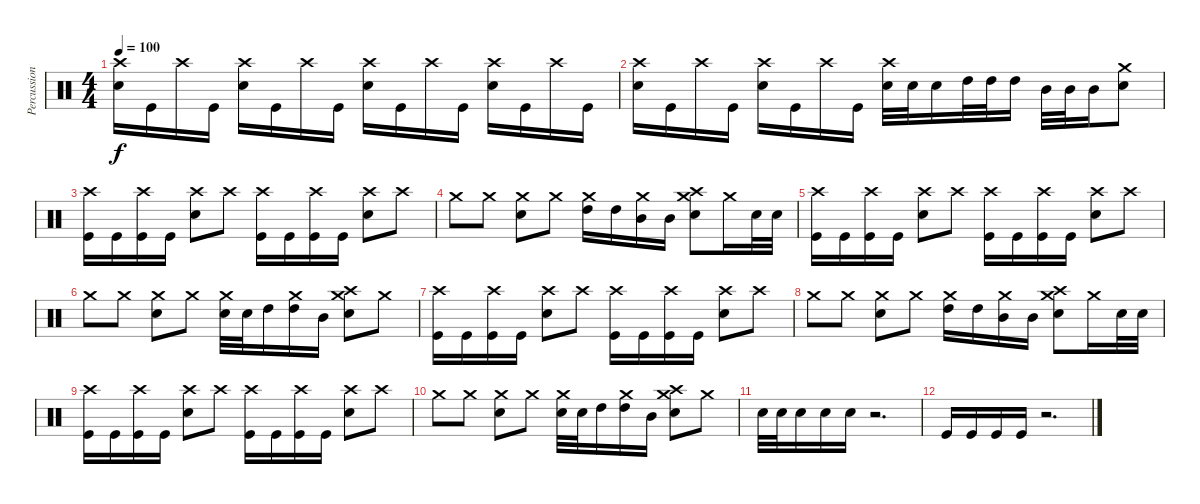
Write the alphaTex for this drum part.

\track ("Percussion" "Percussion") {instrument percussion}
\staff {score}
\articulation defaults
\ts (4 4)
\tempo 100
\clef neutral
\ks c
("Crash high (hit)" "Electric Snare (hit)").16{dy f} "Kick (hit)".16 "Crash high (hit)".16 "Kick (hit)".16 ("Crash high (hit)" "Electric Snare (hit)").16 "Kick (hit)".16 "Crash high (hit)".16 "Kick (hit)".16 ("Crash high (hit)" "Electric Snare (hit)").16 "Kick (hit)".16 "Crash high (hit)".16 "Kick (hit)".16 ("Crash high (hit)" "Electric Snare (hit)").16 "Kick (hit)".16 "Crash high (hit)".16 "Kick (hit)".16 |
("Crash high (hit)" "Electric Snare (hit)").16 "Kick (hit)".16 "Crash high (hit)".16 "Kick (hit)".16 ("Crash high (hit)" "Electric Snare (hit)").16 "Kick (hit)".16 "Crash high (hit)".16 "Kick (hit)".16 ("Crash high (hit)" "Electric Snare (hit)").32 "Electric Snare (hit)".32 "Electric Snare (hit)".16 "High Tom (hit)".32 "High Tom (hit)".32 "High Tom (hit)".16 "Mid Tom (hit)".32 "Mid Tom (hit)".32 "Mid Tom (hit)".16 ("Electric Snare (hit)" "Crash medium (hit)").8 |
("Crash high (hit)" "Kick (hit)").16 "Kick (hit)".16 ("Crash high (hit)" "Kick (hit)").16 "Kick (hit)".16 ("Crash high (hit)" "Electric Snare (hit)").8 "Crash high (hit)".8 ("Crash high (hit)" "Kick (hit)").16 "Kick (hit)".16 ("Crash high (hit)" "Kick (hit)").16 "Kick (hit)".16 ("Crash high (hit)" "Electric Snare (hit)").8 "Crash high (hit)".8 |
"Crash medium (hit)".8 "Crash medium (hit)".8 ("Crash medium (hit)" "Electric Snare (hit)").8 "Crash medium (hit)".8 ("Crash medium (hit)" "High Tom (hit)").16 "High Tom (hit)".16 ("Crash medium (hit)" "Mid Tom (hit)").16 "Mid Tom (hit)".16 ("Crash high (hit)" "Crash medium (hit)" "Electric Snare (hit)").8 "Crash medium (hit)".16 "Electric Snare (hit)".32 "Electric Snare (hit)".32 |
("Crash high (hit)" "Kick (hit)").16 "Kick (hit)".16 ("Crash high (hit)" "Kick (hit)").16 "Kick (hit)".16 ("Crash high (hit)" "Electric Snare (hit)").8 "Crash high (hit)".8 ("Crash high (hit)" "Kick (hit)").16 "Kick (hit)".16 ("Crash high (hit)" "Kick (hit)").16 "Kick (hit)".16 ("Crash high (hit)" "Electric Snare (hit)").8 "Crash high (hit)".8 |
"Crash medium (hit)".8 "Crash medium (hit)".8 ("Crash medium (hit)" "Electric Snare (hit)").8 "Crash medium (hit)".8 ("Crash medium (hit)" "Electric Snare (hit)").32 "Electric Snare (hit)".32 "High Tom (hit)".16 ("Crash medium (hit)" "High Tom (hit)").16 "Mid Tom (hit)".16 ("Crash high (hit)" "Crash medium (hit)" "Electric Snare (hit)").8 "Crash medium (hit)".8 |
("Crash high (hit)" "Kick (hit)").16 "Kick (hit)".16 ("Crash high (hit)" "Kick (hit)").16 "Kick (hit)".16 ("Crash high (hit)" "Electric Snare (hit)").8 "Crash high (hit)".8 ("Crash high (hit)" "Kick (hit)").16 "Kick (hit)".16 ("Crash high (hit)" "Kick (hit)").16 "Kick (hit)".16 ("Crash high (hit)" "Electric Snare (hit)").8 "Crash high (hit)".8 |
"Crash medium (hit)".8 "Crash medium (hit)".8 ("Crash medium (hit)" "Electric Snare (hit)").8 "Crash medium (hit)".8 ("Crash medium (hit)" "High Tom (hit)").16 "High Tom (hit)".16 ("Crash medium (hit)" "Mid Tom (hit)").16 "Mid Tom (hit)".16 ("Crash high (hit)" "Crash medium (hit)" "Electric Snare (hit)").8 "Crash medium (hit)".16 "Electric Snare (hit)".32 "Electric Snare (hit)".32 |
("Crash high (hit)" "Kick (hit)").16 "Kick (hit)".16 ("Crash high (hit)" "Kick (hit)").16 "Kick (hit)".16 ("Crash high (hit)" "Electric Snare (hit)").8 "Crash high (hit)".8 ("Crash high (hit)" "Kick (hit)").16 "Kick (hit)".16 ("Crash high (hit)" "Kick (hit)").16 "Kick (hit)".16 ("Crash high (hit)" "Electric Snare (hit)").8 "Crash high (hit)".8 |
"Crash medium (hit)".8 "Crash medium (hit)".8 ("Crash medium (hit)" "Electric Snare (hit)").8 "Crash medium (hit)".8 ("Crash medium (hit)" "Electric Snare (hit)").32 "Electric Snare (hit)".32 "High Tom (hit)".16 ("Crash medium (hit)" "High Tom (hit)").16 "Mid Tom (hit)".16 ("Crash high (hit)" "Crash medium (hit)" "Electric Snare (hit)").8 "Crash medium (hit)".8 |
"Electric Snare (hit)".32 "Electric Snare (hit)".32 "Electric Snare (hit)".16 "Electric Snare (hit)".16 "Electric Snare (hit)".16 r.2{d} |
"Kick (hit)".16 "Kick (hit)".16 "Kick (hit)".16 "Kick (hit)".16 r.2{d}
